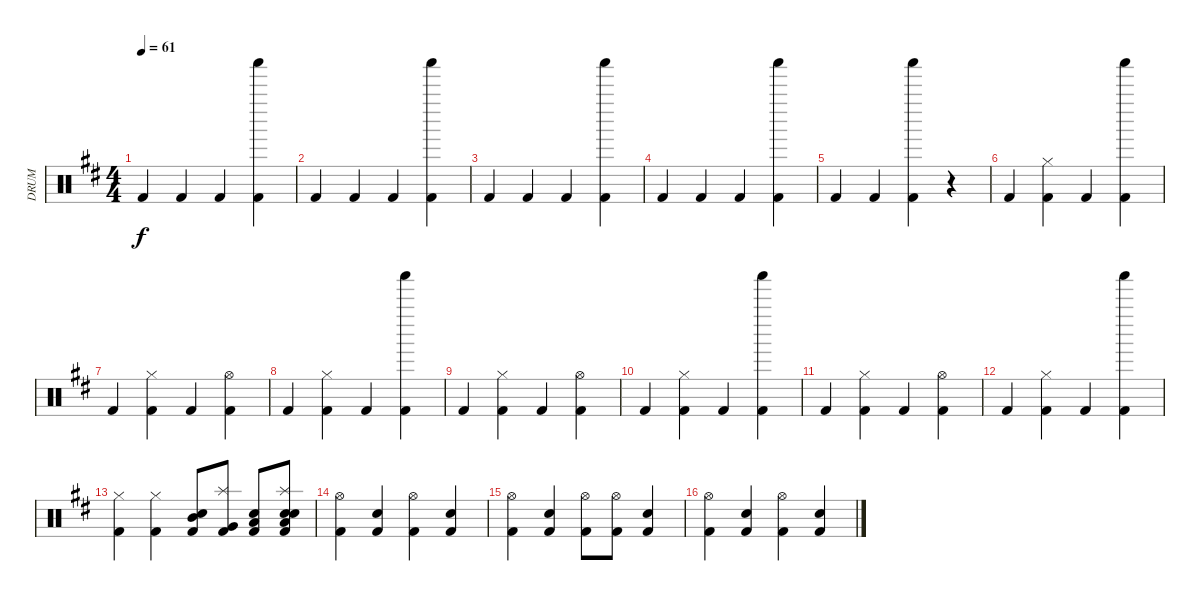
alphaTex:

\track ("DRUM" "DRUM") {instrument percussion}
\staff {score}
\articulation defaults
\ts (4 4)
\tempo 61
\clef neutral
\ks d "Kick (hit) 2".4{dy f} "Kick (hit) 2".4 "Kick (hit) 2".4
("Shaker (hit)" "Kick (hit) 2").4 |
"Kick (hit) 2".4 "Kick (hit) 2".4 "Kick (hit) 2".4 ("Shaker (hit)" "Kick (hit) 2").4 |
"Kick (hit) 2".4 "Kick (hit) 2".4 "Kick (hit) 2".4 ("Shaker (hit)" "Kick (hit) 2").4 |
"Kick (hit) 2".4 "Kick (hit) 2".4 "Kick (hit) 2".4 ("Shaker (hit)" "Kick (hit) 2").4 |
"Kick (hit) 2".4 "Kick (hit) 2".4 ("Shaker (hit)" "Kick (hit) 2").4 r.4 |
"Kick (hit) 2".4 ("Hi-Hat (closed)" "Kick (hit) 2").4 "Kick (hit) 2".4 ("Shaker (hit)" "Kick (hit) 2").4 |
"Kick (hit) 2".4 ("Hi-Hat (closed)" "Kick (hit) 2").4 "Kick (hit) 2".4 ("Hi-Hat (open)" "Kick (hit) 2").4 |
"Kick (hit) 2".4 ("Hi-Hat (closed)" "Kick (hit) 2").4 "Kick (hit) 2".4 ("Shaker (hit)" "Kick (hit) 2").4 |
"Kick (hit) 2".4 ("Hi-Hat (closed)" "Kick (hit) 2").4 "Kick (hit) 2".4 ("Hi-Hat (open)" "Kick (hit) 2").4 |
"Kick (hit) 2".4 ("Hi-Hat (closed)" "Kick (hit) 2").4 "Kick (hit) 2".4 ("Shaker (hit)" "Kick (hit) 2").4 |
"Kick (hit) 2".4 ("Hi-Hat (closed)" "Kick (hit) 2").4 "Kick (hit) 2".4 ("Hi-Hat (open)" "Kick (hit) 2").4 |
"Kick (hit) 2".4 ("Hi-Hat (closed)" "Kick (hit) 2").4 "Kick (hit) 2".4 ("Shaker (hit)" "Kick (hit) 2").4 |
("Hi-Hat (closed)" "Kick (hit) 2").4 ("Hi-Hat (closed)" "Kick (hit) 2").4 ("Snare (hit) 2" "Mid Tom (hit)" "Kick (hit) 2").8 ("Splash (hit)" "Very Low Tom (hit)" "Kick (hit) 2").8 ("Snare (hit) 2" "Low Floor Tom (hit)" "Kick (hit) 2").8 ("Splash (hit)" "Low Floor Tom (hit)" "Electric Snare (hit)" "Snare (hit) 2" "Kick (hit) 2").8 |
("Hi-Hat (open)" "Kick (hit) 2").4 ("Electric Snare (hit)" "Kick (hit) 2").4 ("Hi-Hat (open)" "Kick (hit) 2").4 ("Snare (hit) 2" "Kick (hit) 2").4 |
("Hi-Hat (open)" "Kick (hit) 2").4 ("Electric Snare (hit)" "Kick (hit) 2").4 ("Hi-Hat (open)" "Kick (hit) 2").8 ("Hi-Hat (open)" "Kick (hit) 2").8 ("Snare (hit) 2" "Kick (hit) 2").4 |
("Hi-Hat (open)" "Kick (hit) 2").4 ("Electric Snare (hit)" "Kick (hit) 2").4 ("Hi-Hat (open)" "Kick (hit) 2").4 ("Snare (hit) 2" "Kick (hit) 2").4
